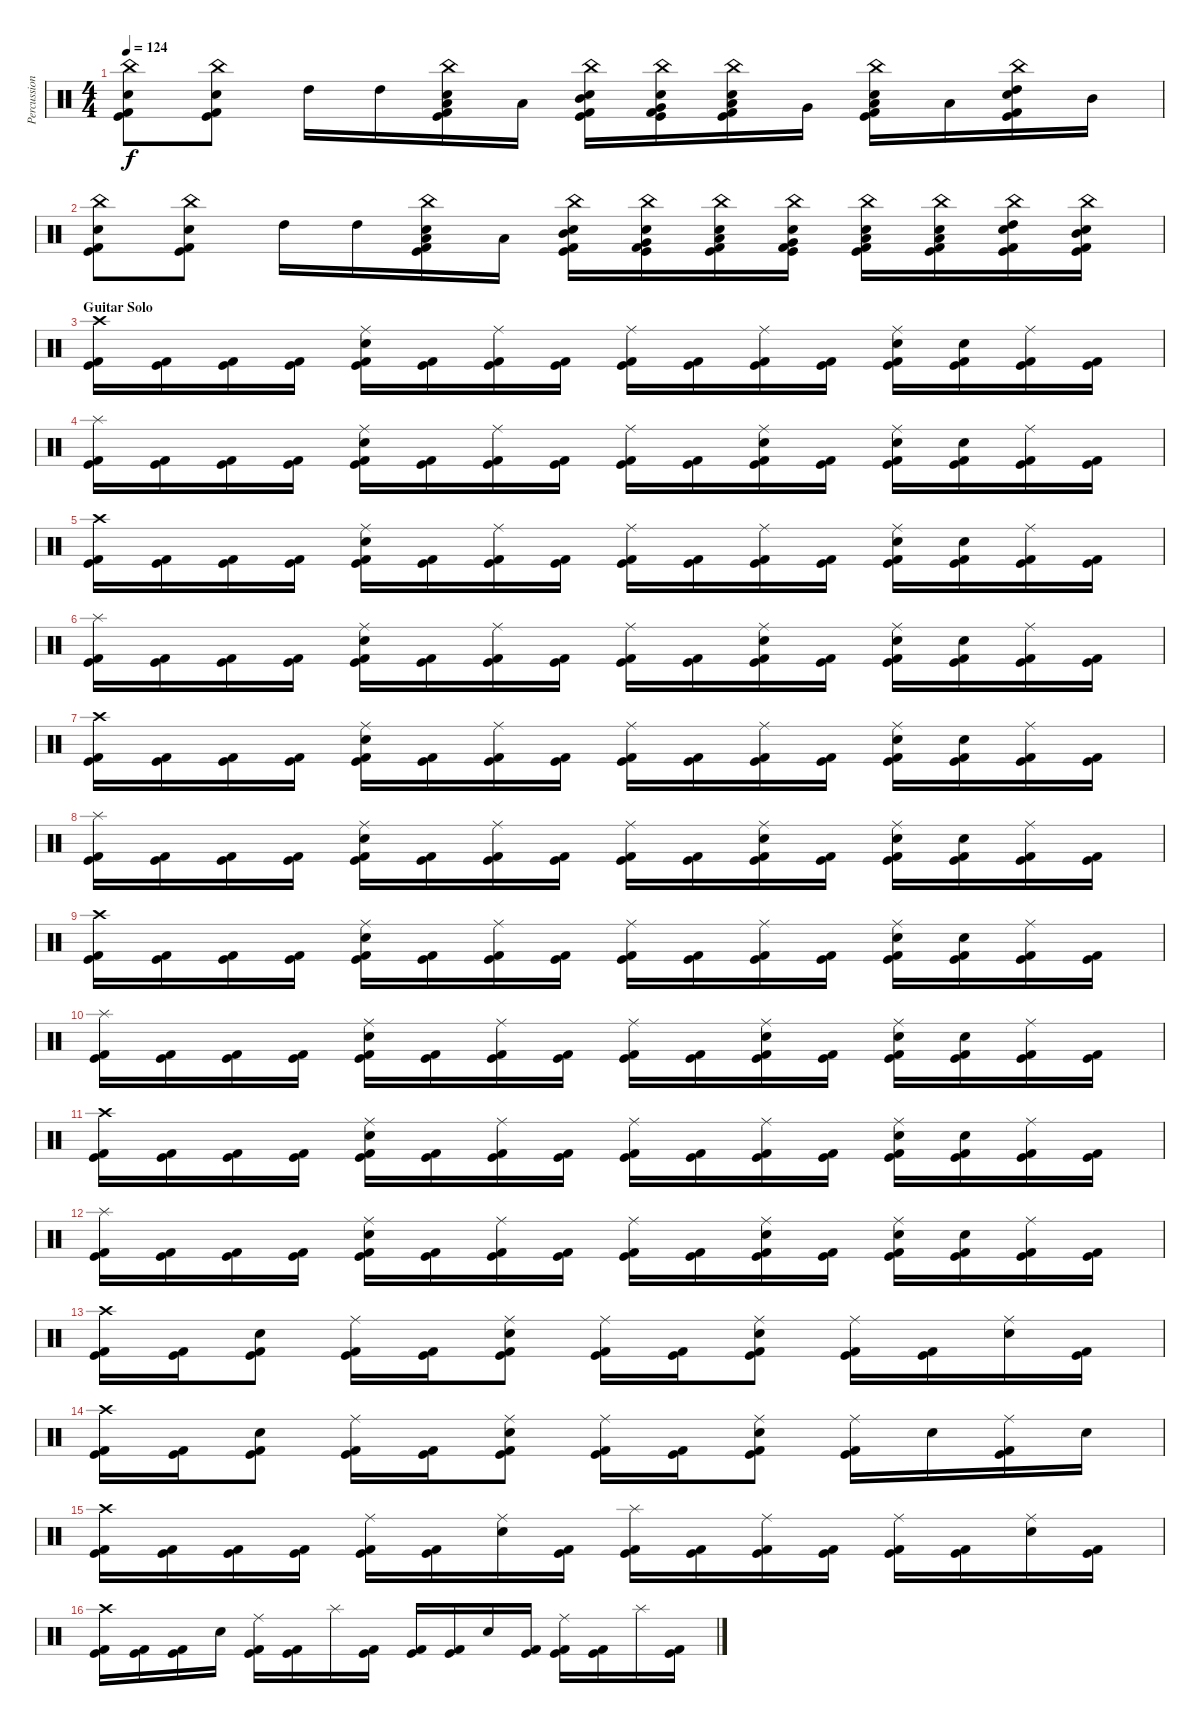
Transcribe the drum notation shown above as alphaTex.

\track ("Percussion" "Percussion") {instrument percussion}
\staff {score}
\articulation defaults
\ts (4 4)
\tempo 124
\clef neutral
\ks c
("China (hit)" "Snare (hit) 2" "Kick (hit) 2" "Kick (hit)").8{dy f} ("China (hit)" "Snare (hit) 2" "Kick (hit) 2" "Kick (hit)").8 "High Tom (hit)".16 "High Tom (hit)".16 ("China (hit)" "Snare (hit) 2" "Low Tom (hit)" "Kick (hit) 2" "Kick (hit)").16 "Low Tom (hit)".16 ("China (hit)" "Snare (hit) 2" "Mid Tom (hit)" "Kick (hit) 2" "Kick (hit)").16 ("China (hit)" "Snare (hit) 2" "Very Low Tom (hit)" "Kick (hit) 2" "Kick (hit)").16 ("China (hit)" "Snare (hit) 2" "Low Floor Tom (hit)" "Kick (hit) 2" "Kick (hit)").16 "Very Low Tom (hit)".16 ("China (hit)" "Snare (hit) 2" "Low Tom (hit)" "Kick (hit) 2" "Kick (hit)").16 "Low Tom (hit)".16 ("China (hit)" "Snare (hit) 2" "High Tom (hit)" "Kick (hit) 2" "Kick (hit)").16 "Mid Tom (hit)".16 |
("China (hit)" "Snare (hit) 2" "Kick (hit) 2" "Kick (hit)").8 ("China (hit)" "Snare (hit) 2" "Kick (hit) 2" "Kick (hit)").8 "High Tom (hit)".16 "High Tom (hit)".16 ("China (hit)" "Snare (hit) 2" "Low Tom (hit)" "Kick (hit) 2" "Kick (hit)").16 "Low Tom (hit)".16 ("China (hit)" "Snare (hit) 2" "Mid Tom (hit)" "Kick (hit) 2" "Kick (hit)").16 ("China (hit)" "Snare (hit) 2" "Very Low Tom (hit)" "Kick (hit) 2" "Kick (hit)").16 ("China (hit)" "Snare (hit) 2" "Low Floor Tom (hit)" "Kick (hit) 2" "Kick (hit)").16 ("China (hit)" "Snare (hit) 2" "Very Low Tom (hit)" "Kick (hit) 2" "Kick (hit)").16 ("China (hit)" "Snare (hit) 2" "Low Tom (hit)" "Kick (hit) 2" "Kick (hit)").16 ("China (hit)" "Snare (hit) 2" "Low Tom (hit)" "Kick (hit) 2" "Kick (hit)").16 ("China (hit)" "Snare (hit) 2" "High Tom (hit)" "Kick (hit) 2" "Kick (hit)").16 ("China (hit)" "Snare (hit) 2" "Mid Tom (hit)" "Kick (hit) 2" "Kick (hit)").16 |
\section ("" "Guitar Solo")
("Crash high (hit)" "Kick (hit) 2" "Kick (hit)").16 ("Kick (hit) 2" "Kick (hit)").16 ("Kick (hit) 2" "Kick (hit)").16 ("Kick (hit) 2" "Kick (hit)").16 ("Ride (middle)" "Snare (hit) 2" "Kick (hit) 2" "Kick (hit)").16 ("Kick (hit) 2" "Kick (hit)").16 ("Ride (middle)" "Kick (hit) 2" "Kick (hit)").16 ("Kick (hit) 2" "Kick (hit)").16 ("Ride (middle)" "Kick (hit) 2" "Kick (hit)").16 ("Kick (hit) 2" "Kick (hit)").16 ("Ride (middle)" "Kick (hit) 2" "Kick (hit)").16 ("Kick (hit) 2" "Kick (hit)").16 ("Ride (middle)" "Snare (hit) 2" "Kick (hit) 2" "Kick (hit)").16 ("Snare (hit) 2" "Kick (hit) 2" "Kick (hit)").16 ("Ride (middle)" "Kick (hit) 2" "Kick (hit)").16 ("Kick (hit) 2" "Kick (hit)").16 |
("Splash (hit)" "Kick (hit) 2" "Kick (hit)").16 ("Kick (hit) 2" "Kick (hit)").16 ("Kick (hit) 2" "Kick (hit)").16 ("Kick (hit) 2" "Kick (hit)").16 ("Ride (middle)" "Snare (hit) 2" "Kick (hit) 2" "Kick (hit)").16 ("Kick (hit) 2" "Kick (hit)").16 ("Ride (middle)" "Kick (hit) 2" "Kick (hit)").16 ("Kick (hit) 2" "Kick (hit)").16 ("Ride (middle)" "Kick (hit) 2" "Kick (hit)").16 ("Kick (hit) 2" "Kick (hit)").16 ("Ride (middle)" "Snare (hit) 2" "Kick (hit) 2" "Kick (hit)").16 ("Kick (hit) 2" "Kick (hit)").16 ("Ride (middle)" "Snare (hit) 2" "Kick (hit) 2" "Kick (hit)").16 ("Snare (hit) 2" "Kick (hit) 2" "Kick (hit)").16 ("Ride (middle)" "Kick (hit) 2" "Kick (hit)").16 ("Kick (hit) 2" "Kick (hit)").16 |
("Crash high (hit)" "Kick (hit) 2" "Kick (hit)").16 ("Kick (hit) 2" "Kick (hit)").16 ("Kick (hit) 2" "Kick (hit)").16 ("Kick (hit) 2" "Kick (hit)").16 ("Ride (middle)" "Snare (hit) 2" "Kick (hit) 2" "Kick (hit)").16 ("Kick (hit) 2" "Kick (hit)").16 ("Ride (middle)" "Kick (hit) 2" "Kick (hit)").16 ("Kick (hit) 2" "Kick (hit)").16 ("Ride (middle)" "Kick (hit) 2" "Kick (hit)").16 ("Kick (hit) 2" "Kick (hit)").16 ("Ride (middle)" "Kick (hit) 2" "Kick (hit)").16 ("Kick (hit) 2" "Kick (hit)").16 ("Ride (middle)" "Snare (hit) 2" "Kick (hit) 2" "Kick (hit)").16 ("Snare (hit) 2" "Kick (hit) 2" "Kick (hit)").16 ("Ride (middle)" "Kick (hit) 2" "Kick (hit)").16 ("Kick (hit) 2" "Kick (hit)").16 |
("Splash (hit)" "Kick (hit) 2" "Kick (hit)").16 ("Kick (hit) 2" "Kick (hit)").16 ("Kick (hit) 2" "Kick (hit)").16 ("Kick (hit) 2" "Kick (hit)").16 ("Ride (middle)" "Snare (hit) 2" "Kick (hit) 2" "Kick (hit)").16 ("Kick (hit) 2" "Kick (hit)").16 ("Ride (middle)" "Kick (hit) 2" "Kick (hit)").16 ("Kick (hit) 2" "Kick (hit)").16 ("Ride (middle)" "Kick (hit) 2" "Kick (hit)").16 ("Kick (hit) 2" "Kick (hit)").16 ("Ride (middle)" "Snare (hit) 2" "Kick (hit) 2" "Kick (hit)").16 ("Kick (hit) 2" "Kick (hit)").16 ("Ride (middle)" "Snare (hit) 2" "Kick (hit) 2" "Kick (hit)").16 ("Snare (hit) 2" "Kick (hit) 2" "Kick (hit)").16 ("Ride (middle)" "Kick (hit) 2" "Kick (hit)").16 ("Kick (hit) 2" "Kick (hit)").16 |
("Crash high (hit)" "Kick (hit) 2" "Kick (hit)").16 ("Kick (hit) 2" "Kick (hit)").16 ("Kick (hit) 2" "Kick (hit)").16 ("Kick (hit) 2" "Kick (hit)").16 ("Ride (middle)" "Snare (hit) 2" "Kick (hit) 2" "Kick (hit)").16 ("Kick (hit) 2" "Kick (hit)").16 ("Ride (middle)" "Kick (hit) 2" "Kick (hit)").16 ("Kick (hit) 2" "Kick (hit)").16 ("Ride (middle)" "Kick (hit) 2" "Kick (hit)").16 ("Kick (hit) 2" "Kick (hit)").16 ("Ride (middle)" "Kick (hit) 2" "Kick (hit)").16 ("Kick (hit) 2" "Kick (hit)").16 ("Ride (middle)" "Snare (hit) 2" "Kick (hit) 2" "Kick (hit)").16 ("Snare (hit) 2" "Kick (hit) 2" "Kick (hit)").16 ("Ride (middle)" "Kick (hit) 2" "Kick (hit)").16 ("Kick (hit) 2" "Kick (hit)").16 |
("Splash (hit)" "Kick (hit) 2" "Kick (hit)").16 ("Kick (hit) 2" "Kick (hit)").16 ("Kick (hit) 2" "Kick (hit)").16 ("Kick (hit) 2" "Kick (hit)").16 ("Ride (middle)" "Snare (hit) 2" "Kick (hit) 2" "Kick (hit)").16 ("Kick (hit) 2" "Kick (hit)").16 ("Ride (middle)" "Kick (hit) 2" "Kick (hit)").16 ("Kick (hit) 2" "Kick (hit)").16 ("Ride (middle)" "Kick (hit) 2" "Kick (hit)").16 ("Kick (hit) 2" "Kick (hit)").16 ("Ride (middle)" "Snare (hit) 2" "Kick (hit) 2" "Kick (hit)").16 ("Kick (hit) 2" "Kick (hit)").16 ("Ride (middle)" "Snare (hit) 2" "Kick (hit) 2" "Kick (hit)").16 ("Snare (hit) 2" "Kick (hit) 2" "Kick (hit)").16 ("Ride (middle)" "Kick (hit) 2" "Kick (hit)").16 ("Kick (hit) 2" "Kick (hit)").16 |
("Crash high (hit)" "Kick (hit) 2" "Kick (hit)").16 ("Kick (hit) 2" "Kick (hit)").16 ("Kick (hit) 2" "Kick (hit)").16 ("Kick (hit) 2" "Kick (hit)").16 ("Ride (middle)" "Snare (hit) 2" "Kick (hit) 2" "Kick (hit)").16 ("Kick (hit) 2" "Kick (hit)").16 ("Ride (middle)" "Kick (hit) 2" "Kick (hit)").16 ("Kick (hit) 2" "Kick (hit)").16 ("Ride (middle)" "Kick (hit) 2" "Kick (hit)").16 ("Kick (hit) 2" "Kick (hit)").16 ("Ride (middle)" "Kick (hit) 2" "Kick (hit)").16 ("Kick (hit) 2" "Kick (hit)").16 ("Ride (middle)" "Snare (hit) 2" "Kick (hit) 2" "Kick (hit)").16 ("Snare (hit) 2" "Kick (hit) 2" "Kick (hit)").16 ("Ride (middle)" "Kick (hit) 2" "Kick (hit)").16 ("Kick (hit) 2" "Kick (hit)").16 |
("Splash (hit)" "Kick (hit) 2" "Kick (hit)").16 ("Kick (hit) 2" "Kick (hit)").16 ("Kick (hit) 2" "Kick (hit)").16 ("Kick (hit) 2" "Kick (hit)").16 ("Ride (middle)" "Snare (hit) 2" "Kick (hit) 2" "Kick (hit)").16 ("Kick (hit) 2" "Kick (hit)").16 ("Ride (middle)" "Kick (hit) 2" "Kick (hit)").16 ("Kick (hit) 2" "Kick (hit)").16 ("Ride (middle)" "Kick (hit) 2" "Kick (hit)").16 ("Kick (hit) 2" "Kick (hit)").16 ("Ride (middle)" "Snare (hit) 2" "Kick (hit) 2" "Kick (hit)").16 ("Kick (hit) 2" "Kick (hit)").16 ("Ride (middle)" "Snare (hit) 2" "Kick (hit) 2" "Kick (hit)").16 ("Snare (hit) 2" "Kick (hit) 2" "Kick (hit)").16 ("Ride (middle)" "Kick (hit) 2" "Kick (hit)").16 ("Kick (hit) 2" "Kick (hit)").16 |
("Crash high (hit)" "Kick (hit) 2" "Kick (hit)").16 ("Kick (hit) 2" "Kick (hit)").16 ("Kick (hit) 2" "Kick (hit)").16 ("Kick (hit) 2" "Kick (hit)").16 ("Ride (middle)" "Snare (hit) 2" "Kick (hit) 2" "Kick (hit)").16 ("Kick (hit) 2" "Kick (hit)").16 ("Ride (middle)" "Kick (hit) 2" "Kick (hit)").16 ("Kick (hit) 2" "Kick (hit)").16 ("Ride (middle)" "Kick (hit) 2" "Kick (hit)").16 ("Kick (hit) 2" "Kick (hit)").16 ("Ride (middle)" "Kick (hit) 2" "Kick (hit)").16 ("Kick (hit) 2" "Kick (hit)").16 ("Ride (middle)" "Snare (hit) 2" "Kick (hit) 2" "Kick (hit)").16 ("Snare (hit) 2" "Kick (hit) 2" "Kick (hit)").16 ("Ride (middle)" "Kick (hit) 2" "Kick (hit)").16 ("Kick (hit) 2" "Kick (hit)").16 |
("Splash (hit)" "Kick (hit) 2" "Kick (hit)").16 ("Kick (hit) 2" "Kick (hit)").16 ("Kick (hit) 2" "Kick (hit)").16 ("Kick (hit) 2" "Kick (hit)").16 ("Ride (middle)" "Snare (hit) 2" "Kick (hit) 2" "Kick (hit)").16 ("Kick (hit) 2" "Kick (hit)").16 ("Ride (middle)" "Kick (hit) 2" "Kick (hit)").16 ("Kick (hit) 2" "Kick (hit)").16 ("Ride (middle)" "Kick (hit) 2" "Kick (hit)").16 ("Kick (hit) 2" "Kick (hit)").16 ("Ride (middle)" "Snare (hit) 2" "Kick (hit) 2" "Kick (hit)").16 ("Kick (hit) 2" "Kick (hit)").16 ("Ride (middle)" "Snare (hit) 2" "Kick (hit) 2" "Kick (hit)").16 ("Snare (hit) 2" "Kick (hit) 2" "Kick (hit)").16 ("Ride (middle)" "Kick (hit) 2" "Kick (hit)").16 ("Kick (hit) 2" "Kick (hit)").16 |
("Crash high (hit)" "Kick (hit) 2" "Kick (hit)").16 ("Kick (hit) 2" "Kick (hit)").16 ("Snare (hit) 2" "Kick (hit) 2" "Kick (hit)").8 ("Ride (middle)" "Kick (hit) 2" "Kick (hit)").16 ("Kick (hit) 2" "Kick (hit)").16 ("Ride (middle)" "Snare (hit) 2" "Kick (hit) 2" "Kick (hit)").8 ("Ride (middle)" "Kick (hit) 2" "Kick (hit)").16 ("Kick (hit) 2" "Kick (hit)").16 ("Ride (middle)" "Snare (hit) 2" "Kick (hit) 2" "Kick (hit)").8 ("Ride (middle)" "Kick (hit) 2" "Kick (hit)").16 ("Kick (hit) 2" "Kick (hit)").16 ("Ride (middle)" "Snare (hit) 2").16 ("Kick (hit) 2" "Kick (hit)").16 |
("Crash high (hit)" "Kick (hit) 2" "Kick (hit)").16 ("Kick (hit) 2" "Kick (hit)").16 ("Snare (hit) 2" "Kick (hit) 2" "Kick (hit)").8 ("Ride (middle)" "Kick (hit) 2" "Kick (hit)").16 ("Kick (hit) 2" "Kick (hit)").16 ("Ride (middle)" "Snare (hit) 2" "Kick (hit) 2" "Kick (hit)").8 ("Ride (middle)" "Kick (hit) 2" "Kick (hit)").16 ("Kick (hit) 2" "Kick (hit)").16 ("Ride (middle)" "Snare (hit) 2" "Kick (hit) 2" "Kick (hit)").8 ("Ride (middle)" "Kick (hit) 2" "Kick (hit)").16 "Snare (hit) 2".16 ("Ride (middle)" "Kick (hit) 2" "Kick (hit)").16 "Snare (hit) 2".16 |
("Crash high (hit)" "Kick (hit) 2" "Kick (hit)").16 ("Kick (hit) 2" "Kick (hit)").16 ("Kick (hit) 2" "Kick (hit)").16 ("Kick (hit) 2" "Kick (hit)").16 ("Ride (middle)" "Kick (hit) 2" "Kick (hit)").16 ("Kick (hit) 2" "Kick (hit)").16 ("Ride (middle)" "Snare (hit) 2").16 ("Kick (hit) 2" "Kick (hit)").16 ("Splash (hit)" "Kick (hit) 2" "Kick (hit)").16 ("Kick (hit) 2" "Kick (hit)").16 ("Ride (middle)" "Kick (hit) 2" "Kick (hit)").16 ("Kick (hit) 2" "Kick (hit)").16 ("Ride (middle)" "Kick (hit) 2" "Kick (hit)").16 ("Kick (hit) 2" "Kick (hit)").16 ("Ride (middle)" "Snare (hit) 2").16 ("Kick (hit) 2" "Kick (hit)").16 |
("Crash high (hit)" "Kick (hit) 2" "Kick (hit)").16 ("Kick (hit) 2" "Kick (hit)").16 ("Kick (hit) 2" "Kick (hit)").16 "Snare (hit) 2".16 ("Ride (middle)" "Kick (hit) 2" "Kick (hit)").16 ("Kick (hit) 2" "Kick (hit)").16 "Splash (hit)".16 ("Kick (hit) 2" "Kick (hit)").16 ("Kick (hit) 2" "Kick (hit)").16 ("Kick (hit) 2" "Kick (hit)").16 "Snare (hit) 2".16 ("Kick (hit) 2" "Kick (hit)").16 ("Ride (middle)" "Kick (hit) 2" "Kick (hit)").16 ("Kick (hit) 2" "Kick (hit)").16 "Splash (hit)".16 ("Kick (hit) 2" "Kick (hit)").16
